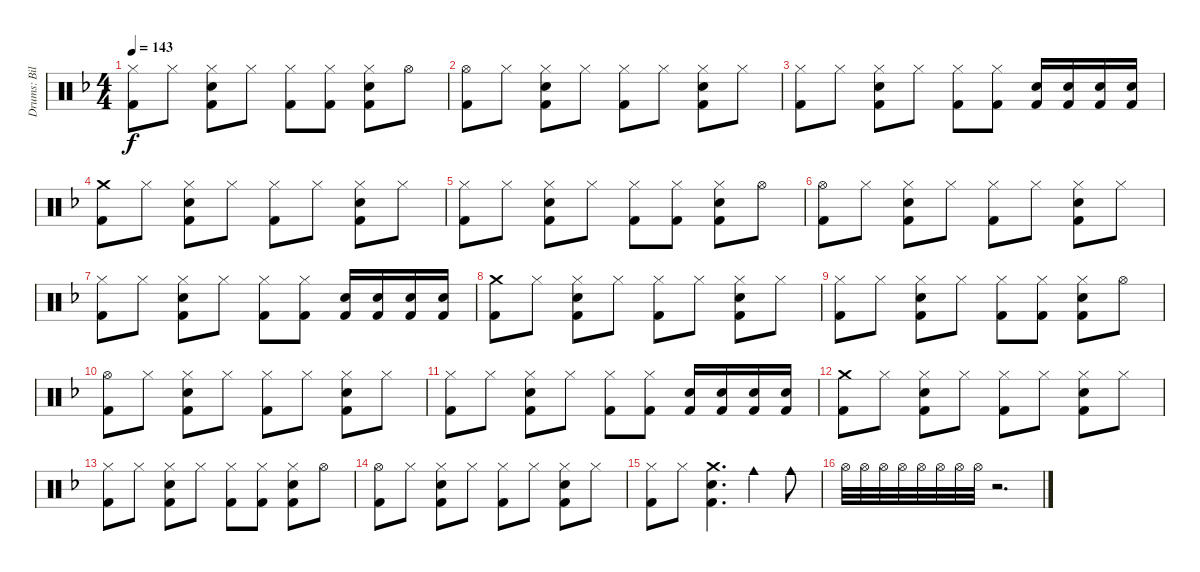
\track ("Drums: Bill" "Drums: Bil") {instrument percussion}
\staff {score}
\articulation defaults
\ts (4 4)
\tempo 143
\clef neutral
\ks f
("Hi-Hat (closed)" "Kick (hit) 2").8{dy f} "Hi-Hat (closed)".8 ("Hi-Hat (closed)" "Snare (hit) 2" "Kick (hit) 2").8 "Hi-Hat (closed)".8 ("Hi-Hat (closed)" "Kick (hit) 2").8 ("Hi-Hat (closed)" "Kick (hit) 2").8 ("Hi-Hat (closed)" "Snare (hit) 2" "Kick (hit) 2").8 "Hi-Hat (open)".8 |
("Hi-Hat (open)" "Kick (hit) 2").8 "Hi-Hat (closed)".8 ("Hi-Hat (closed)" "Snare (hit) 2" "Kick (hit) 2").8 "Hi-Hat (closed)".8 ("Hi-Hat (closed)" "Kick (hit) 2").8 "Hi-Hat (closed)".8 ("Hi-Hat (closed)" "Snare (hit) 2" "Kick (hit) 2").8 "Hi-Hat (closed)".8 |
("Hi-Hat (closed)" "Kick (hit) 2").8 "Hi-Hat (closed)".8 ("Hi-Hat (closed)" "Snare (hit) 2" "Kick (hit) 2").8 "Hi-Hat (closed)".8 ("Hi-Hat (closed)" "Kick (hit) 2").8 ("Hi-Hat (closed)" "Kick (hit) 2").8 ("Snare (hit) 2" "Kick (hit) 2").16 ("Snare (hit) 2" "Kick (hit) 2").16 ("Snare (hit) 2" "Kick (hit) 2").16 ("Snare (hit) 2" "Kick (hit) 2").16 |
("Crash medium (hit)" "Kick (hit) 2").8 "Hi-Hat (closed)".8 ("Hi-Hat (closed)" "Snare (hit) 2" "Kick (hit) 2").8 "Hi-Hat (closed)".8 ("Hi-Hat (closed)" "Kick (hit) 2").8 "Hi-Hat (closed)".8 ("Hi-Hat (closed)" "Snare (hit) 2" "Kick (hit) 2").8 "Hi-Hat (closed)".8 |
("Hi-Hat (closed)" "Kick (hit) 2").8 "Hi-Hat (closed)".8 ("Hi-Hat (closed)" "Snare (hit) 2" "Kick (hit) 2").8 "Hi-Hat (closed)".8 ("Hi-Hat (closed)" "Kick (hit) 2").8 ("Hi-Hat (closed)" "Kick (hit) 2").8 ("Hi-Hat (closed)" "Snare (hit) 2" "Kick (hit) 2").8 "Hi-Hat (open)".8 |
("Hi-Hat (open)" "Kick (hit) 2").8 "Hi-Hat (closed)".8 ("Hi-Hat (closed)" "Snare (hit) 2" "Kick (hit) 2").8 "Hi-Hat (closed)".8 ("Hi-Hat (closed)" "Kick (hit) 2").8 "Hi-Hat (closed)".8 ("Hi-Hat (closed)" "Snare (hit) 2" "Kick (hit) 2").8 "Hi-Hat (closed)".8 |
("Hi-Hat (closed)" "Kick (hit) 2").8 "Hi-Hat (closed)".8 ("Hi-Hat (closed)" "Snare (hit) 2" "Kick (hit) 2").8 "Hi-Hat (closed)".8 ("Hi-Hat (closed)" "Kick (hit) 2").8 ("Hi-Hat (closed)" "Kick (hit) 2").8 ("Snare (hit) 2" "Kick (hit) 2").16 ("Snare (hit) 2" "Kick (hit) 2").16 ("Snare (hit) 2" "Kick (hit) 2").16 ("Snare (hit) 2" "Kick (hit) 2").16 |
("Crash medium (hit)" "Kick (hit) 2").8 "Hi-Hat (closed)".8 ("Hi-Hat (closed)" "Snare (hit) 2" "Kick (hit) 2").8 "Hi-Hat (closed)".8 ("Hi-Hat (closed)" "Kick (hit) 2").8 "Hi-Hat (closed)".8 ("Hi-Hat (closed)" "Snare (hit) 2" "Kick (hit) 2").8 "Hi-Hat (closed)".8 |
("Hi-Hat (closed)" "Kick (hit) 2").8 "Hi-Hat (closed)".8 ("Hi-Hat (closed)" "Snare (hit) 2" "Kick (hit) 2").8 "Hi-Hat (closed)".8 ("Hi-Hat (closed)" "Kick (hit) 2").8 ("Hi-Hat (closed)" "Kick (hit) 2").8 ("Hi-Hat (closed)" "Snare (hit) 2" "Kick (hit) 2").8 "Hi-Hat (open)".8 |
("Hi-Hat (open)" "Kick (hit) 2").8 "Hi-Hat (closed)".8 ("Hi-Hat (closed)" "Snare (hit) 2" "Kick (hit) 2").8 "Hi-Hat (closed)".8 ("Hi-Hat (closed)" "Kick (hit) 2").8 "Hi-Hat (closed)".8 ("Hi-Hat (closed)" "Snare (hit) 2" "Kick (hit) 2").8 "Hi-Hat (closed)".8 |
("Hi-Hat (closed)" "Kick (hit) 2").8 "Hi-Hat (closed)".8 ("Hi-Hat (closed)" "Snare (hit) 2" "Kick (hit) 2").8 "Hi-Hat (closed)".8 ("Hi-Hat (closed)" "Kick (hit) 2").8 ("Hi-Hat (closed)" "Kick (hit) 2").8 ("Snare (hit) 2" "Kick (hit) 2").16 ("Snare (hit) 2" "Kick (hit) 2").16 ("Snare (hit) 2" "Kick (hit) 2").16 ("Snare (hit) 2" "Kick (hit) 2").16 |
("Crash medium (hit)" "Kick (hit) 2").8 "Hi-Hat (closed)".8 ("Hi-Hat (closed)" "Snare (hit) 2" "Kick (hit) 2").8 "Hi-Hat (closed)".8 ("Hi-Hat (closed)" "Kick (hit) 2").8 "Hi-Hat (closed)".8 ("Hi-Hat (closed)" "Snare (hit) 2" "Kick (hit) 2").8 "Hi-Hat (closed)".8 |
("Hi-Hat (closed)" "Kick (hit) 2").8 "Hi-Hat (closed)".8 ("Hi-Hat (closed)" "Snare (hit) 2" "Kick (hit) 2").8 "Hi-Hat (closed)".8 ("Hi-Hat (closed)" "Kick (hit) 2").8 ("Hi-Hat (closed)" "Kick (hit) 2").8 ("Hi-Hat (closed)" "Snare (hit) 2" "Kick (hit) 2").8 "Hi-Hat (open)".8 |
("Hi-Hat (open)" "Kick (hit) 2").8 "Hi-Hat (closed)".8 ("Hi-Hat (closed)" "Snare (hit) 2" "Kick (hit) 2").8 "Hi-Hat (closed)".8 ("Hi-Hat (closed)" "Kick (hit) 2").8 "Hi-Hat (closed)".8 ("Hi-Hat (closed)" "Snare (hit) 2" "Kick (hit) 2").8 "Hi-Hat (closed)".8 |
("Hi-Hat (closed)" "Kick (hit) 2").8 "Hi-Hat (closed)".8 ("Crash medium (hit)" "Snare (hit) 2" "Kick (hit) 2").4{d} "Cowbell medium (hit)".4 "Cowbell medium (hit)".8 |
"Hi-Hat (open)".32 "Hi-Hat (open)".32 "Hi-Hat (open)".32 "Hi-Hat (open)".32 "Hi-Hat (open)".32 "Hi-Hat (open)".32 "Hi-Hat (open)".32 "Hi-Hat (open)".32 r.2{d}
